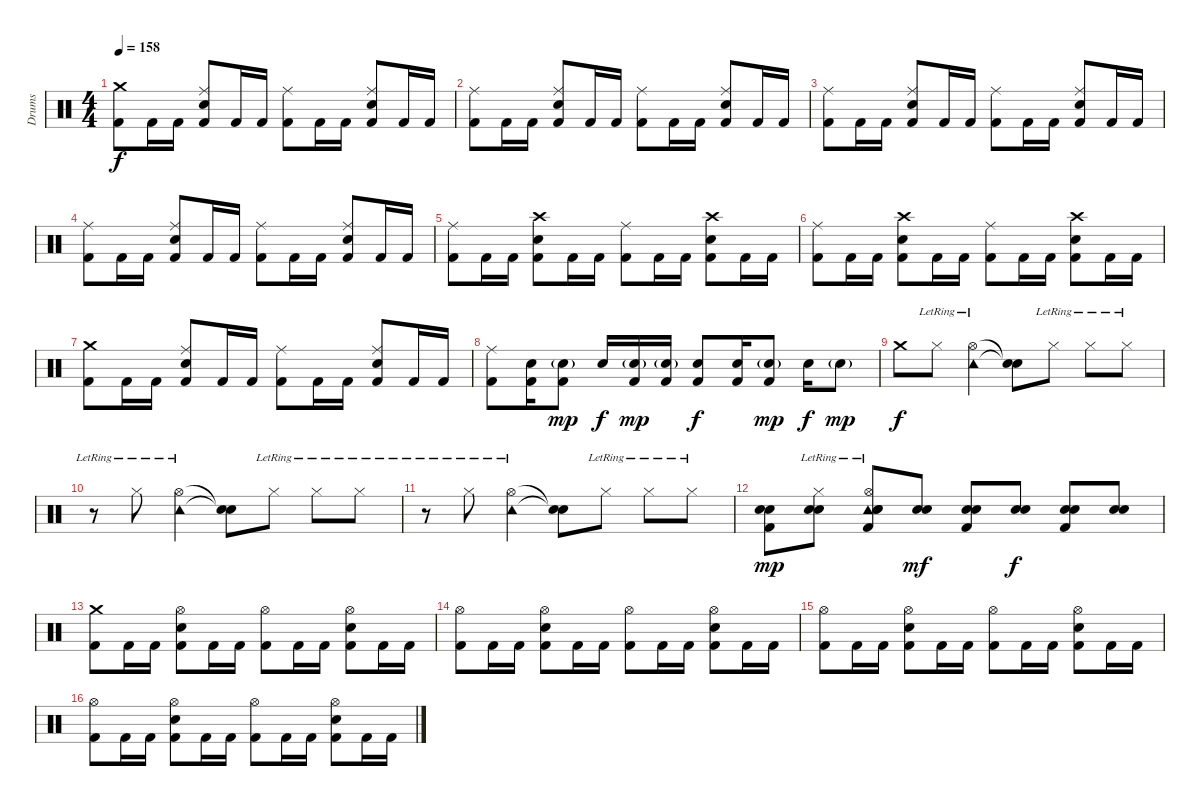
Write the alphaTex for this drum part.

\track ("Drums" "Drums") {instrument percussion}
\staff {score}
\articulation defaults
\ts (4 4)
\section ("" "")
\tempo 158
\clef neutral
\ks c
("Crash medium (hit)" "Kick (hit) 2").8{dy f} "Kick (hit) 2".16 "Kick (hit) 2".16 ("Ride (middle)" "Electric Snare (hit)" "Kick (hit) 2").8 "Kick (hit) 2".16 "Kick (hit) 2".16 ("Ride (middle)" "Kick (hit) 2").8 "Kick (hit) 2".16 "Kick (hit) 2".16 ("Ride (middle)" "Electric Snare (hit)" "Kick (hit) 2").8 "Kick (hit) 2".16 "Kick (hit) 2".16 |
("Ride (middle)" "Kick (hit) 2").8 "Kick (hit) 2".16 "Kick (hit) 2".16 ("Ride (middle)" "Electric Snare (hit)" "Kick (hit) 2").8 "Kick (hit) 2".16 "Kick (hit) 2".16 ("Ride (middle)" "Kick (hit) 2").8 "Kick (hit) 2".16 "Kick (hit) 2".16 ("Ride (middle)" "Electric Snare (hit)" "Kick (hit) 2").8 "Kick (hit) 2".16 "Kick (hit) 2".16 |
("Ride (middle)" "Kick (hit) 2").8 "Kick (hit) 2".16 "Kick (hit) 2".16 ("Ride (middle)" "Electric Snare (hit)" "Kick (hit) 2").8 "Kick (hit) 2".16 "Kick (hit) 2".16 ("Ride (middle)" "Kick (hit) 2").8 "Kick (hit) 2".16 "Kick (hit) 2".16 ("Ride (middle)" "Electric Snare (hit)" "Kick (hit) 2").8 "Kick (hit) 2".16 "Kick (hit) 2".16 |
("Ride (middle)" "Kick (hit) 2").8 "Kick (hit) 2".16 "Kick (hit) 2".16 ("Ride (middle)" "Electric Snare (hit)" "Kick (hit) 2").8 "Kick (hit) 2".16 "Kick (hit) 2".16 ("Ride (middle)" "Kick (hit) 2").8 "Kick (hit) 2".16 "Kick (hit) 2".16 ("Ride (middle)" "Electric Snare (hit)" "Kick (hit) 2").8 "Kick (hit) 2".16 "Kick (hit) 2".16 |
("Ride (middle)" "Kick (hit) 2").8 "Kick (hit) 2".16 "Kick (hit) 2".16 ("Crash high (hit)" "Electric Snare (hit)" "Kick (hit) 2").8 "Kick (hit) 2".16 "Kick (hit) 2".16 ("Ride (middle)" "Kick (hit) 2").8 "Kick (hit) 2".16 "Kick (hit) 2".16 ("Crash high (hit)" "Electric Snare (hit)" "Kick (hit) 2").8 "Kick (hit) 2".16 "Kick (hit) 2".16 |
("Ride (middle)" "Kick (hit) 2").8 "Kick (hit) 2".16 "Kick (hit) 2".16 ("Crash high (hit)" "Electric Snare (hit)" "Kick (hit) 2").8 "Kick (hit) 2".16 "Kick (hit) 2".16 ("Ride (middle)" "Kick (hit) 2").8 "Kick (hit) 2".16 "Kick (hit) 2".16 ("Crash high (hit)" "Electric Snare (hit)" "Kick (hit) 2").8 "Kick (hit) 2".16 "Kick (hit) 2".16 |
("Crash medium (hit)" "Kick (hit) 2").8 "Kick (hit) 2".16 "Kick (hit) 2".16 ("Ride (middle)" "Electric Snare (hit)" "Kick (hit) 2").8 "Kick (hit) 2".16 "Kick (hit) 2".16 ("Ride (middle)" "Kick (hit) 2").8 "Kick (hit) 2".16 "Kick (hit) 2".16 ("Ride (middle)" "Electric Snare (hit)" "Kick (hit) 2").8 "Kick (hit) 2".16 "Kick (hit) 2".16 |
("Ride (middle)" "Kick (hit) 2").8 ("Electric Snare (hit)" "Kick (hit) 2").16 ("Electric Snare (hit)"{g} "Kick (hit) 2").8{dy mp} "Electric Snare (hit)".16{dy f} ("Electric Snare (hit)"{g} "Kick (hit) 2").16{dy mp} ("Electric Snare (hit)"{g} "Kick (hit) 2").16 ("Electric Snare (hit)" "Kick (hit) 2").8{dy f} ("Electric Snare (hit)" "Kick (hit) 2").16 ("Electric Snare (hit)"{g} "Kick (hit) 2").8{dy mp} "Electric Snare (hit)".16{dy f} "Electric Snare (hit)"{g}.8{dy mp} |
\section ("" "")
"Crash medium (hit)".8{dy f} "Hi-Hat (closed)"{lr}.8 ("Hi-Hat (open)"{lr} "Tambourine (hit)"{lr}).4 ("Snare (hit)"{t} "Snare (hit)"{t}).8 "Hi-Hat (closed)"{lr}.8 "Hi-Hat (closed)"{lr}.8 "Hi-Hat (closed)"{lr}.8 |
r.8 "Hi-Hat (closed)"{lr}.8 ("Hi-Hat (open)"{lr} "Tambourine (hit)"{lr}).4 ("Snare (hit)"{t} "Snare (hit)"{t}).8 "Hi-Hat (closed)"{lr}.8 "Hi-Hat (closed)"{lr}.8 "Hi-Hat (closed)"{lr}.8 |
r.8 "Hi-Hat (closed)"{lr}.8 ("Hi-Hat (open)"{lr} "Tambourine (hit)"{lr}).4 ("Snare (hit)"{t} "Snare (hit)"{t}).8 "Hi-Hat (closed)"{lr}.8 "Hi-Hat (closed)"{lr}.8 "Hi-Hat (closed)"{lr}.8 |
("Electric Snare (hit)" "Electric Snare (hit)" "Kick (hit) 2").8{dy mp} ("Hi-Hat (closed)"{lr} "Electric Snare (hit)" "Electric Snare (hit)").8 ("Hi-Hat (open)"{lr} "Tambourine (hit)"{lr} "Electric Snare (hit)" "Electric Snare (hit)" "Kick (hit) 2").8 ("Electric Snare (hit)" "Electric Snare (hit)").8{dy mf} ("Electric Snare (hit)" "Electric Snare (hit)" "Kick (hit) 2").8 ("Electric Snare (hit)" "Electric Snare (hit)").8{dy f} ("Electric Snare (hit)" "Electric Snare (hit)" "Kick (hit) 2").8 ("Electric Snare (hit)" "Electric Snare (hit)").8 |
\section ("" "")
("Crash medium (hit)" "Kick (hit) 2").8 "Kick (hit) 2".16 "Kick (hit) 2".16 ("Hi-Hat (open)" "Electric Snare (hit)" "Kick (hit) 2").8 "Kick (hit) 2".16 "Kick (hit) 2".16 ("Hi-Hat (open)" "Kick (hit) 2").8 "Kick (hit) 2".16 "Kick (hit) 2".16 ("Hi-Hat (open)" "Electric Snare (hit)" "Kick (hit) 2").8 "Kick (hit) 2".16 "Kick (hit) 2".16 |
("Hi-Hat (open)" "Kick (hit) 2").8 "Kick (hit) 2".16 "Kick (hit) 2".16 ("Hi-Hat (open)" "Electric Snare (hit)" "Kick (hit) 2").8 "Kick (hit) 2".16 "Kick (hit) 2".16 ("Hi-Hat (open)" "Kick (hit) 2").8 "Kick (hit) 2".16 "Kick (hit) 2".16 ("Hi-Hat (open)" "Electric Snare (hit)" "Kick (hit) 2").8 "Kick (hit) 2".16 "Kick (hit) 2".16 |
("Hi-Hat (open)" "Kick (hit) 2").8 "Kick (hit) 2".16 "Kick (hit) 2".16 ("Hi-Hat (open)" "Electric Snare (hit)" "Kick (hit) 2").8 "Kick (hit) 2".16 "Kick (hit) 2".16 ("Hi-Hat (open)" "Kick (hit) 2").8 "Kick (hit) 2".16 "Kick (hit) 2".16 ("Hi-Hat (open)" "Electric Snare (hit)" "Kick (hit) 2").8 "Kick (hit) 2".16 "Kick (hit) 2".16 |
("Hi-Hat (open)" "Kick (hit) 2").8 "Kick (hit) 2".16 "Kick (hit) 2".16 ("Hi-Hat (open)" "Electric Snare (hit)" "Kick (hit) 2").8 "Kick (hit) 2".16 "Kick (hit) 2".16 ("Hi-Hat (open)" "Kick (hit) 2").8 "Kick (hit) 2".16 "Kick (hit) 2".16 ("Hi-Hat (open)" "Electric Snare (hit)" "Kick (hit) 2").8 "Kick (hit) 2".16 "Kick (hit) 2".16
